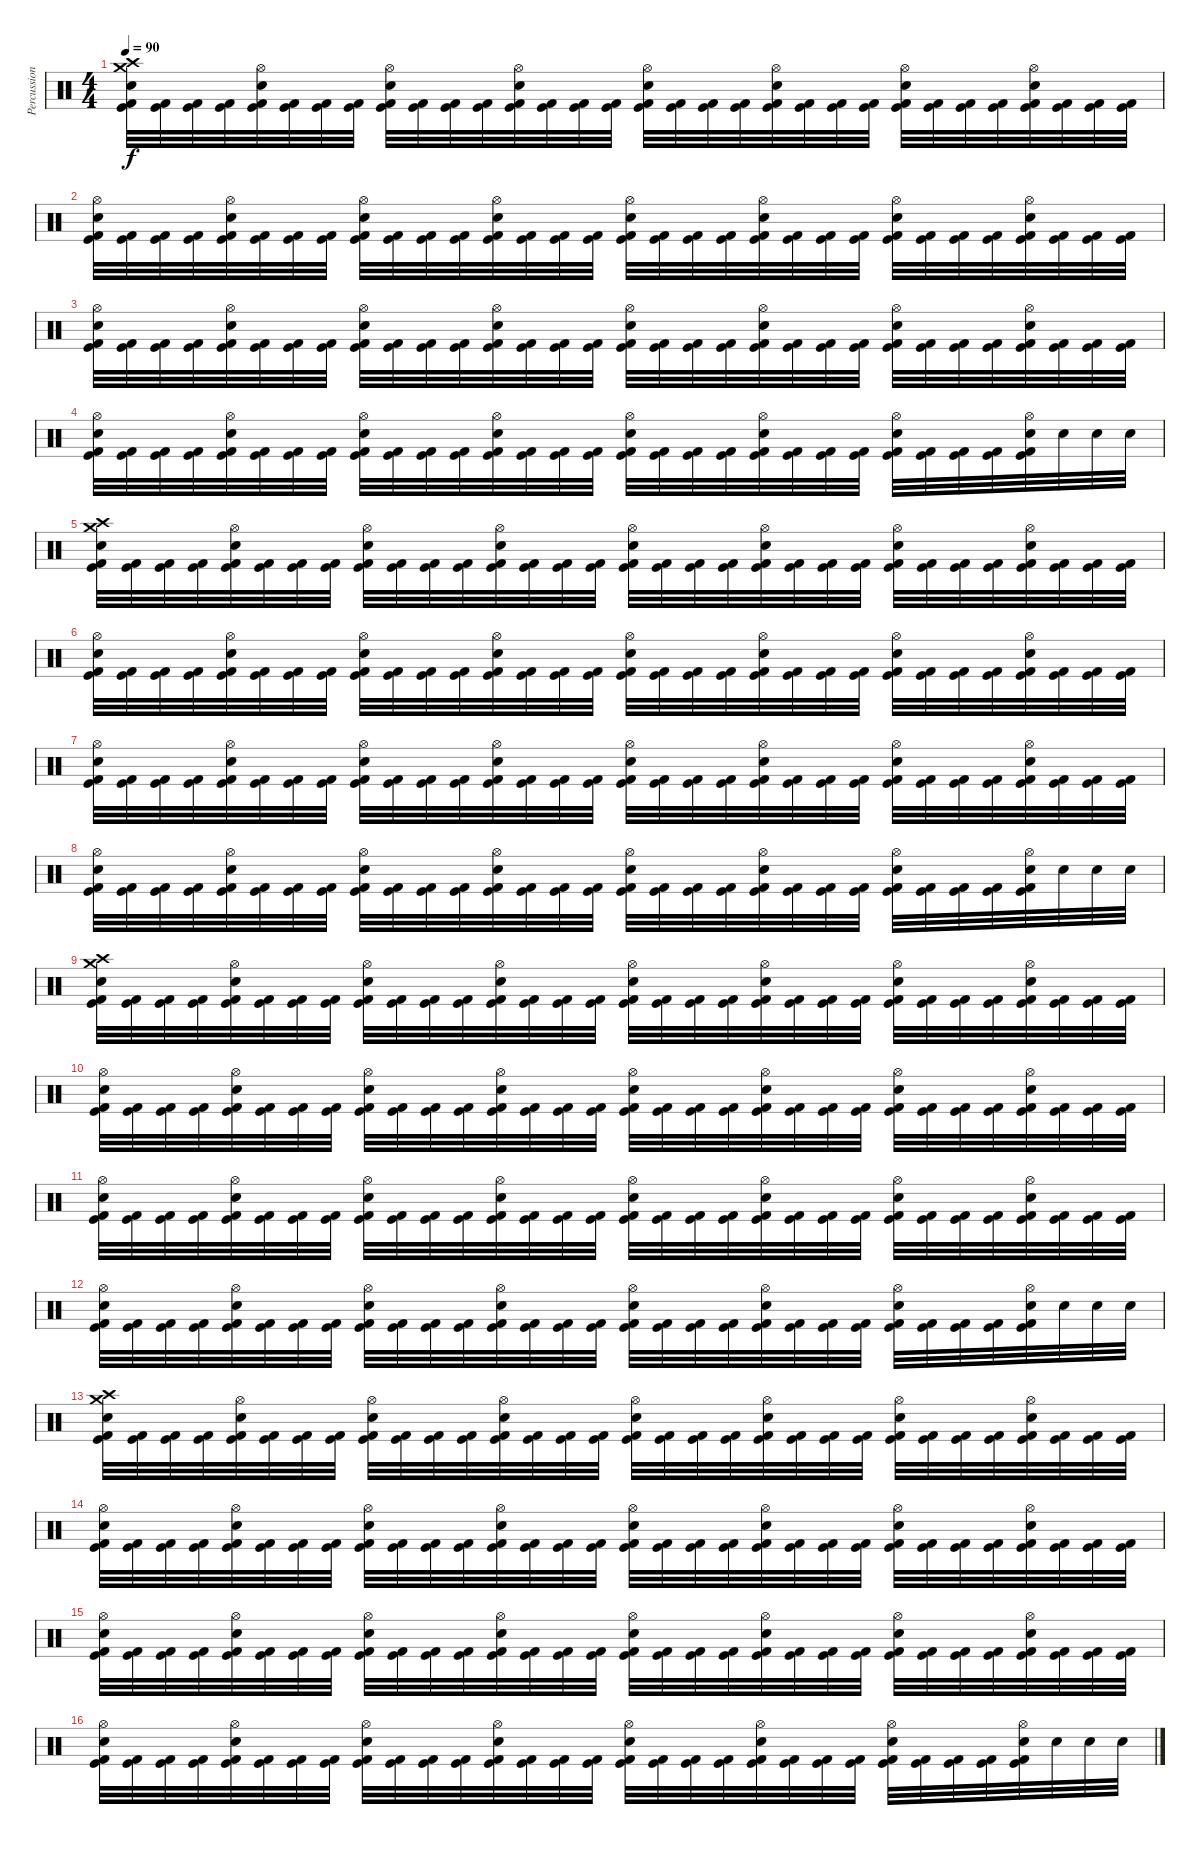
\track ("Percussion" "Percussion") {instrument percussion}
\staff {score}
\articulation defaults
\ts (4 4)
\tempo 90
\clef neutral
\ks c
("Crash medium (hit)" "Crash high (hit)" "Kick (hit) 2" "Electric Snare (hit)" "Kick (hit)").32{dy f} ("Kick (hit) 2" "Kick (hit)").32 ("Kick (hit) 2" "Kick (hit)").32 ("Kick (hit) 2" "Kick (hit)").32 ("Hi-Hat (open)" "Kick (hit) 2" "Electric Snare (hit)" "Kick (hit)").32 ("Kick (hit) 2" "Kick (hit)").32 ("Kick (hit) 2" "Kick (hit)").32 ("Kick (hit) 2" "Kick (hit)").32 ("Hi-Hat (open)" "Kick (hit) 2" "Electric Snare (hit)" "Kick (hit)").32 ("Kick (hit) 2" "Kick (hit)").32 ("Kick (hit) 2" "Kick (hit)").32 ("Kick (hit) 2" "Kick (hit)").32 ("Hi-Hat (open)" "Kick (hit) 2" "Electric Snare (hit)" "Kick (hit)").32 ("Kick (hit) 2" "Kick (hit)").32 ("Kick (hit) 2" "Kick (hit)").32 ("Kick (hit) 2" "Kick (hit)").32 ("Hi-Hat (open)" "Kick (hit) 2" "Electric Snare (hit)" "Kick (hit)").32 ("Kick (hit) 2" "Kick (hit)").32 ("Kick (hit) 2" "Kick (hit)").32 ("Kick (hit) 2" "Kick (hit)").32 ("Hi-Hat (open)" "Kick (hit) 2" "Electric Snare (hit)" "Kick (hit)").32 ("Kick (hit) 2" "Kick (hit)").32 ("Kick (hit) 2" "Kick (hit)").32 ("Kick (hit) 2" "Kick (hit)").32 ("Hi-Hat (open)" "Kick (hit) 2" "Electric Snare (hit)" "Kick (hit)").32 ("Kick (hit) 2" "Kick (hit)").32 ("Kick (hit) 2" "Kick (hit)").32 ("Kick (hit) 2" "Kick (hit)").32 ("Hi-Hat (open)" "Kick (hit) 2" "Electric Snare (hit)" "Kick (hit)").32 ("Kick (hit) 2" "Kick (hit)").32 ("Kick (hit) 2" "Kick (hit)").32 ("Kick (hit) 2" "Kick (hit)").32 |
("Kick (hit) 2" "Hi-Hat (open)" "Electric Snare (hit)" "Kick (hit)").32 ("Kick (hit) 2" "Kick (hit)").32 ("Kick (hit) 2" "Kick (hit)").32 ("Kick (hit) 2" "Kick (hit)").32 ("Kick (hit) 2" "Hi-Hat (open)" "Electric Snare (hit)" "Kick (hit)").32 ("Kick (hit) 2" "Kick (hit)").32 ("Kick (hit) 2" "Kick (hit)").32 ("Kick (hit) 2" "Kick (hit)").32 ("Kick (hit) 2" "Hi-Hat (open)" "Electric Snare (hit)" "Kick (hit)").32 ("Kick (hit) 2" "Kick (hit)").32 ("Kick (hit) 2" "Kick (hit)").32 ("Kick (hit) 2" "Kick (hit)").32 ("Kick (hit) 2" "Hi-Hat (open)" "Electric Snare (hit)" "Kick (hit)").32 ("Kick (hit) 2" "Kick (hit)").32 ("Kick (hit) 2" "Kick (hit)").32 ("Kick (hit) 2" "Kick (hit)").32 ("Kick (hit) 2" "Hi-Hat (open)" "Electric Snare (hit)" "Kick (hit)").32 ("Kick (hit) 2" "Kick (hit)").32 ("Kick (hit) 2" "Kick (hit)").32 ("Kick (hit) 2" "Kick (hit)").32 ("Kick (hit) 2" "Hi-Hat (open)" "Electric Snare (hit)" "Kick (hit)").32 ("Kick (hit) 2" "Kick (hit)").32 ("Kick (hit) 2" "Kick (hit)").32 ("Kick (hit) 2" "Kick (hit)").32 ("Kick (hit) 2" "Hi-Hat (open)" "Electric Snare (hit)" "Kick (hit)").32 ("Kick (hit) 2" "Kick (hit)").32 ("Kick (hit) 2" "Kick (hit)").32 ("Kick (hit) 2" "Kick (hit)").32 ("Kick (hit) 2" "Hi-Hat (open)" "Electric Snare (hit)" "Kick (hit)").32 ("Kick (hit) 2" "Kick (hit)").32 ("Kick (hit) 2" "Kick (hit)").32 ("Kick (hit) 2" "Kick (hit)").32 |
("Kick (hit) 2" "Hi-Hat (open)" "Electric Snare (hit)" "Kick (hit)").32 ("Kick (hit) 2" "Kick (hit)").32 ("Kick (hit) 2" "Kick (hit)").32 ("Kick (hit) 2" "Kick (hit)").32 ("Kick (hit) 2" "Hi-Hat (open)" "Electric Snare (hit)" "Kick (hit)").32 ("Kick (hit) 2" "Kick (hit)").32 ("Kick (hit) 2" "Kick (hit)").32 ("Kick (hit) 2" "Kick (hit)").32 ("Kick (hit) 2" "Hi-Hat (open)" "Electric Snare (hit)" "Kick (hit)").32 ("Kick (hit) 2" "Kick (hit)").32 ("Kick (hit) 2" "Kick (hit)").32 ("Kick (hit) 2" "Kick (hit)").32 ("Kick (hit) 2" "Hi-Hat (open)" "Electric Snare (hit)" "Kick (hit)").32 ("Kick (hit) 2" "Kick (hit)").32 ("Kick (hit) 2" "Kick (hit)").32 ("Kick (hit) 2" "Kick (hit)").32 ("Kick (hit) 2" "Hi-Hat (open)" "Electric Snare (hit)" "Kick (hit)").32 ("Kick (hit) 2" "Kick (hit)").32 ("Kick (hit) 2" "Kick (hit)").32 ("Kick (hit) 2" "Kick (hit)").32 ("Kick (hit) 2" "Hi-Hat (open)" "Electric Snare (hit)" "Kick (hit)").32 ("Kick (hit) 2" "Kick (hit)").32 ("Kick (hit) 2" "Kick (hit)").32 ("Kick (hit) 2" "Kick (hit)").32 ("Kick (hit) 2" "Hi-Hat (open)" "Electric Snare (hit)" "Kick (hit)").32 ("Kick (hit) 2" "Kick (hit)").32 ("Kick (hit) 2" "Kick (hit)").32 ("Kick (hit) 2" "Kick (hit)").32 ("Kick (hit) 2" "Hi-Hat (open)" "Electric Snare (hit)" "Kick (hit)").32 ("Kick (hit) 2" "Kick (hit)").32 ("Kick (hit) 2" "Kick (hit)").32 ("Kick (hit) 2" "Kick (hit)").32 |
("Kick (hit) 2" "Hi-Hat (open)" "Electric Snare (hit)" "Kick (hit)").32 ("Kick (hit) 2" "Kick (hit)").32 ("Kick (hit) 2" "Kick (hit)").32 ("Kick (hit) 2" "Kick (hit)").32 ("Kick (hit) 2" "Hi-Hat (open)" "Kick (hit)" "Electric Snare (hit)").32 ("Kick (hit) 2" "Kick (hit)").32 ("Kick (hit) 2" "Kick (hit)").32 ("Kick (hit) 2" "Kick (hit)").32 ("Kick (hit) 2" "Hi-Hat (open)" "Electric Snare (hit)" "Kick (hit)").32 ("Kick (hit) 2" "Kick (hit)").32 ("Kick (hit) 2" "Kick (hit)").32 ("Kick (hit) 2" "Kick (hit)").32 ("Kick (hit) 2" "Hi-Hat (open)" "Electric Snare (hit)" "Kick (hit)").32 ("Kick (hit) 2" "Kick (hit)").32 ("Kick (hit) 2" "Kick (hit)").32 ("Kick (hit) 2" "Kick (hit)").32 ("Kick (hit) 2" "Hi-Hat (open)" "Electric Snare (hit)" "Kick (hit)").32 ("Kick (hit) 2" "Kick (hit)").32 ("Kick (hit) 2" "Kick (hit)").32 ("Kick (hit) 2" "Kick (hit)").32 ("Kick (hit) 2" "Electric Snare (hit)" "Hi-Hat (open)" "Kick (hit)").32 ("Kick (hit) 2" "Kick (hit)").32 ("Kick (hit) 2" "Kick (hit)").32 ("Kick (hit) 2" "Kick (hit)").32 ("Kick (hit) 2" "Hi-Hat (open)" "Electric Snare (hit)" "Kick (hit)").32 ("Kick (hit) 2" "Kick (hit)").32 ("Kick (hit) 2" "Kick (hit)").32 ("Kick (hit) 2" "Kick (hit)").32 ("Kick (hit) 2" "Hi-Hat (open)" "Electric Snare (hit)" "Kick (hit)").32 "Electric Snare (hit)".32 "Electric Snare (hit)".32 "Electric Snare (hit)".32 |
("Crash medium (hit)" "Crash high (hit)" "Kick (hit) 2" "Electric Snare (hit)" "Kick (hit)").32 ("Kick (hit) 2" "Kick (hit)").32 ("Kick (hit) 2" "Kick (hit)").32 ("Kick (hit) 2" "Kick (hit)").32 ("Hi-Hat (open)" "Kick (hit) 2" "Electric Snare (hit)" "Kick (hit)").32 ("Kick (hit) 2" "Kick (hit)").32 ("Kick (hit) 2" "Kick (hit)").32 ("Kick (hit) 2" "Kick (hit)").32 ("Hi-Hat (open)" "Kick (hit) 2" "Electric Snare (hit)" "Kick (hit)").32 ("Kick (hit) 2" "Kick (hit)").32 ("Kick (hit) 2" "Kick (hit)").32 ("Kick (hit) 2" "Kick (hit)").32 ("Hi-Hat (open)" "Kick (hit) 2" "Electric Snare (hit)" "Kick (hit)").32 ("Kick (hit) 2" "Kick (hit)").32 ("Kick (hit) 2" "Kick (hit)").32 ("Kick (hit) 2" "Kick (hit)").32 ("Hi-Hat (open)" "Kick (hit) 2" "Electric Snare (hit)" "Kick (hit)").32 ("Kick (hit) 2" "Kick (hit)").32 ("Kick (hit) 2" "Kick (hit)").32 ("Kick (hit) 2" "Kick (hit)").32 ("Hi-Hat (open)" "Kick (hit) 2" "Electric Snare (hit)" "Kick (hit)").32 ("Kick (hit) 2" "Kick (hit)").32 ("Kick (hit) 2" "Kick (hit)").32 ("Kick (hit) 2" "Kick (hit)").32 ("Hi-Hat (open)" "Kick (hit) 2" "Electric Snare (hit)" "Kick (hit)").32 ("Kick (hit) 2" "Kick (hit)").32 ("Kick (hit) 2" "Kick (hit)").32 ("Kick (hit) 2" "Kick (hit)").32 ("Hi-Hat (open)" "Kick (hit) 2" "Electric Snare (hit)" "Kick (hit)").32 ("Kick (hit) 2" "Kick (hit)").32 ("Kick (hit) 2" "Kick (hit)").32 ("Kick (hit) 2" "Kick (hit)").32 |
("Kick (hit) 2" "Hi-Hat (open)" "Electric Snare (hit)" "Kick (hit)").32 ("Kick (hit) 2" "Kick (hit)").32 ("Kick (hit) 2" "Kick (hit)").32 ("Kick (hit) 2" "Kick (hit)").32 ("Kick (hit) 2" "Hi-Hat (open)" "Electric Snare (hit)" "Kick (hit)").32 ("Kick (hit) 2" "Kick (hit)").32 ("Kick (hit) 2" "Kick (hit)").32 ("Kick (hit) 2" "Kick (hit)").32 ("Kick (hit) 2" "Hi-Hat (open)" "Electric Snare (hit)" "Kick (hit)").32 ("Kick (hit) 2" "Kick (hit)").32 ("Kick (hit) 2" "Kick (hit)").32 ("Kick (hit) 2" "Kick (hit)").32 ("Kick (hit) 2" "Hi-Hat (open)" "Electric Snare (hit)" "Kick (hit)").32 ("Kick (hit) 2" "Kick (hit)").32 ("Kick (hit) 2" "Kick (hit)").32 ("Kick (hit) 2" "Kick (hit)").32 ("Kick (hit) 2" "Hi-Hat (open)" "Electric Snare (hit)" "Kick (hit)").32 ("Kick (hit) 2" "Kick (hit)").32 ("Kick (hit) 2" "Kick (hit)").32 ("Kick (hit) 2" "Kick (hit)").32 ("Kick (hit) 2" "Hi-Hat (open)" "Electric Snare (hit)" "Kick (hit)").32 ("Kick (hit) 2" "Kick (hit)").32 ("Kick (hit) 2" "Kick (hit)").32 ("Kick (hit) 2" "Kick (hit)").32 ("Kick (hit) 2" "Hi-Hat (open)" "Electric Snare (hit)" "Kick (hit)").32 ("Kick (hit) 2" "Kick (hit)").32 ("Kick (hit) 2" "Kick (hit)").32 ("Kick (hit) 2" "Kick (hit)").32 ("Kick (hit) 2" "Hi-Hat (open)" "Electric Snare (hit)" "Kick (hit)").32 ("Kick (hit) 2" "Kick (hit)").32 ("Kick (hit) 2" "Kick (hit)").32 ("Kick (hit) 2" "Kick (hit)").32 |
("Kick (hit) 2" "Hi-Hat (open)" "Electric Snare (hit)" "Kick (hit)").32 ("Kick (hit) 2" "Kick (hit)").32 ("Kick (hit) 2" "Kick (hit)").32 ("Kick (hit) 2" "Kick (hit)").32 ("Kick (hit) 2" "Hi-Hat (open)" "Electric Snare (hit)" "Kick (hit)").32 ("Kick (hit) 2" "Kick (hit)").32 ("Kick (hit) 2" "Kick (hit)").32 ("Kick (hit) 2" "Kick (hit)").32 ("Kick (hit) 2" "Hi-Hat (open)" "Electric Snare (hit)" "Kick (hit)").32 ("Kick (hit) 2" "Kick (hit)").32 ("Kick (hit) 2" "Kick (hit)").32 ("Kick (hit) 2" "Kick (hit)").32 ("Kick (hit) 2" "Hi-Hat (open)" "Electric Snare (hit)" "Kick (hit)").32 ("Kick (hit) 2" "Kick (hit)").32 ("Kick (hit) 2" "Kick (hit)").32 ("Kick (hit) 2" "Kick (hit)").32 ("Kick (hit) 2" "Hi-Hat (open)" "Electric Snare (hit)" "Kick (hit)").32 ("Kick (hit) 2" "Kick (hit)").32 ("Kick (hit) 2" "Kick (hit)").32 ("Kick (hit) 2" "Kick (hit)").32 ("Kick (hit) 2" "Hi-Hat (open)" "Electric Snare (hit)" "Kick (hit)").32 ("Kick (hit) 2" "Kick (hit)").32 ("Kick (hit) 2" "Kick (hit)").32 ("Kick (hit) 2" "Kick (hit)").32 ("Kick (hit) 2" "Hi-Hat (open)" "Electric Snare (hit)" "Kick (hit)").32 ("Kick (hit) 2" "Kick (hit)").32 ("Kick (hit) 2" "Kick (hit)").32 ("Kick (hit) 2" "Kick (hit)").32 ("Kick (hit) 2" "Hi-Hat (open)" "Electric Snare (hit)" "Kick (hit)").32 ("Kick (hit) 2" "Kick (hit)").32 ("Kick (hit) 2" "Kick (hit)").32 ("Kick (hit) 2" "Kick (hit)").32 |
("Kick (hit) 2" "Hi-Hat (open)" "Electric Snare (hit)" "Kick (hit)").32 ("Kick (hit) 2" "Kick (hit)").32 ("Kick (hit) 2" "Kick (hit)").32 ("Kick (hit) 2" "Kick (hit)").32 ("Kick (hit) 2" "Hi-Hat (open)" "Kick (hit)" "Electric Snare (hit)").32 ("Kick (hit) 2" "Kick (hit)").32 ("Kick (hit) 2" "Kick (hit)").32 ("Kick (hit) 2" "Kick (hit)").32 ("Kick (hit) 2" "Hi-Hat (open)" "Electric Snare (hit)" "Kick (hit)").32 ("Kick (hit) 2" "Kick (hit)").32 ("Kick (hit) 2" "Kick (hit)").32 ("Kick (hit) 2" "Kick (hit)").32 ("Kick (hit) 2" "Hi-Hat (open)" "Electric Snare (hit)" "Kick (hit)").32 ("Kick (hit) 2" "Kick (hit)").32 ("Kick (hit) 2" "Kick (hit)").32 ("Kick (hit) 2" "Kick (hit)").32 ("Kick (hit) 2" "Hi-Hat (open)" "Electric Snare (hit)" "Kick (hit)").32 ("Kick (hit) 2" "Kick (hit)").32 ("Kick (hit) 2" "Kick (hit)").32 ("Kick (hit) 2" "Kick (hit)").32 ("Kick (hit) 2" "Electric Snare (hit)" "Hi-Hat (open)" "Kick (hit)").32 ("Kick (hit) 2" "Kick (hit)").32 ("Kick (hit) 2" "Kick (hit)").32 ("Kick (hit) 2" "Kick (hit)").32 ("Kick (hit) 2" "Hi-Hat (open)" "Electric Snare (hit)" "Kick (hit)").32 ("Kick (hit) 2" "Kick (hit)").32 ("Kick (hit) 2" "Kick (hit)").32 ("Kick (hit) 2" "Kick (hit)").32 ("Kick (hit) 2" "Hi-Hat (open)" "Electric Snare (hit)" "Kick (hit)").32 "Electric Snare (hit)".32 "Electric Snare (hit)".32 "Electric Snare (hit)".32 |
("Crash medium (hit)" "Crash high (hit)" "Kick (hit) 2" "Electric Snare (hit)" "Kick (hit)").32 ("Kick (hit) 2" "Kick (hit)").32 ("Kick (hit) 2" "Kick (hit)").32 ("Kick (hit) 2" "Kick (hit)").32 ("Hi-Hat (open)" "Kick (hit) 2" "Electric Snare (hit)" "Kick (hit)").32 ("Kick (hit) 2" "Kick (hit)").32 ("Kick (hit) 2" "Kick (hit)").32 ("Kick (hit) 2" "Kick (hit)").32 ("Hi-Hat (open)" "Kick (hit) 2" "Electric Snare (hit)" "Kick (hit)").32 ("Kick (hit) 2" "Kick (hit)").32 ("Kick (hit) 2" "Kick (hit)").32 ("Kick (hit) 2" "Kick (hit)").32 ("Hi-Hat (open)" "Kick (hit) 2" "Electric Snare (hit)" "Kick (hit)").32 ("Kick (hit) 2" "Kick (hit)").32 ("Kick (hit) 2" "Kick (hit)").32 ("Kick (hit) 2" "Kick (hit)").32 ("Hi-Hat (open)" "Kick (hit) 2" "Electric Snare (hit)" "Kick (hit)").32 ("Kick (hit) 2" "Kick (hit)").32 ("Kick (hit) 2" "Kick (hit)").32 ("Kick (hit) 2" "Kick (hit)").32 ("Hi-Hat (open)" "Kick (hit) 2" "Electric Snare (hit)" "Kick (hit)").32 ("Kick (hit) 2" "Kick (hit)").32 ("Kick (hit) 2" "Kick (hit)").32 ("Kick (hit) 2" "Kick (hit)").32 ("Hi-Hat (open)" "Kick (hit) 2" "Electric Snare (hit)" "Kick (hit)").32 ("Kick (hit) 2" "Kick (hit)").32 ("Kick (hit) 2" "Kick (hit)").32 ("Kick (hit) 2" "Kick (hit)").32 ("Hi-Hat (open)" "Kick (hit) 2" "Electric Snare (hit)" "Kick (hit)").32 ("Kick (hit) 2" "Kick (hit)").32 ("Kick (hit) 2" "Kick (hit)").32 ("Kick (hit) 2" "Kick (hit)").32 |
("Kick (hit) 2" "Hi-Hat (open)" "Electric Snare (hit)" "Kick (hit)").32 ("Kick (hit) 2" "Kick (hit)").32 ("Kick (hit) 2" "Kick (hit)").32 ("Kick (hit) 2" "Kick (hit)").32 ("Kick (hit) 2" "Hi-Hat (open)" "Electric Snare (hit)" "Kick (hit)").32 ("Kick (hit) 2" "Kick (hit)").32 ("Kick (hit) 2" "Kick (hit)").32 ("Kick (hit) 2" "Kick (hit)").32 ("Kick (hit) 2" "Hi-Hat (open)" "Electric Snare (hit)" "Kick (hit)").32 ("Kick (hit) 2" "Kick (hit)").32 ("Kick (hit) 2" "Kick (hit)").32 ("Kick (hit) 2" "Kick (hit)").32 ("Kick (hit) 2" "Hi-Hat (open)" "Electric Snare (hit)" "Kick (hit)").32 ("Kick (hit) 2" "Kick (hit)").32 ("Kick (hit) 2" "Kick (hit)").32 ("Kick (hit) 2" "Kick (hit)").32 ("Kick (hit) 2" "Hi-Hat (open)" "Electric Snare (hit)" "Kick (hit)").32 ("Kick (hit) 2" "Kick (hit)").32 ("Kick (hit) 2" "Kick (hit)").32 ("Kick (hit) 2" "Kick (hit)").32 ("Kick (hit) 2" "Hi-Hat (open)" "Electric Snare (hit)" "Kick (hit)").32 ("Kick (hit) 2" "Kick (hit)").32 ("Kick (hit) 2" "Kick (hit)").32 ("Kick (hit) 2" "Kick (hit)").32 ("Kick (hit) 2" "Hi-Hat (open)" "Electric Snare (hit)" "Kick (hit)").32 ("Kick (hit) 2" "Kick (hit)").32 ("Kick (hit) 2" "Kick (hit)").32 ("Kick (hit) 2" "Kick (hit)").32 ("Kick (hit) 2" "Hi-Hat (open)" "Electric Snare (hit)" "Kick (hit)").32 ("Kick (hit) 2" "Kick (hit)").32 ("Kick (hit) 2" "Kick (hit)").32 ("Kick (hit) 2" "Kick (hit)").32 |
("Kick (hit) 2" "Hi-Hat (open)" "Electric Snare (hit)" "Kick (hit)").32 ("Kick (hit) 2" "Kick (hit)").32 ("Kick (hit) 2" "Kick (hit)").32 ("Kick (hit) 2" "Kick (hit)").32 ("Kick (hit) 2" "Hi-Hat (open)" "Electric Snare (hit)" "Kick (hit)").32 ("Kick (hit) 2" "Kick (hit)").32 ("Kick (hit) 2" "Kick (hit)").32 ("Kick (hit) 2" "Kick (hit)").32 ("Kick (hit) 2" "Hi-Hat (open)" "Electric Snare (hit)" "Kick (hit)").32 ("Kick (hit) 2" "Kick (hit)").32 ("Kick (hit) 2" "Kick (hit)").32 ("Kick (hit) 2" "Kick (hit)").32 ("Kick (hit) 2" "Hi-Hat (open)" "Electric Snare (hit)" "Kick (hit)").32 ("Kick (hit) 2" "Kick (hit)").32 ("Kick (hit) 2" "Kick (hit)").32 ("Kick (hit) 2" "Kick (hit)").32 ("Kick (hit) 2" "Hi-Hat (open)" "Electric Snare (hit)" "Kick (hit)").32 ("Kick (hit) 2" "Kick (hit)").32 ("Kick (hit) 2" "Kick (hit)").32 ("Kick (hit) 2" "Kick (hit)").32 ("Kick (hit) 2" "Hi-Hat (open)" "Electric Snare (hit)" "Kick (hit)").32 ("Kick (hit) 2" "Kick (hit)").32 ("Kick (hit) 2" "Kick (hit)").32 ("Kick (hit) 2" "Kick (hit)").32 ("Kick (hit) 2" "Hi-Hat (open)" "Electric Snare (hit)" "Kick (hit)").32 ("Kick (hit) 2" "Kick (hit)").32 ("Kick (hit) 2" "Kick (hit)").32 ("Kick (hit) 2" "Kick (hit)").32 ("Kick (hit) 2" "Hi-Hat (open)" "Electric Snare (hit)" "Kick (hit)").32 ("Kick (hit) 2" "Kick (hit)").32 ("Kick (hit) 2" "Kick (hit)").32 ("Kick (hit) 2" "Kick (hit)").32 |
("Kick (hit) 2" "Hi-Hat (open)" "Electric Snare (hit)" "Kick (hit)").32 ("Kick (hit) 2" "Kick (hit)").32 ("Kick (hit) 2" "Kick (hit)").32 ("Kick (hit) 2" "Kick (hit)").32 ("Kick (hit) 2" "Hi-Hat (open)" "Kick (hit)" "Electric Snare (hit)").32 ("Kick (hit) 2" "Kick (hit)").32 ("Kick (hit) 2" "Kick (hit)").32 ("Kick (hit) 2" "Kick (hit)").32 ("Kick (hit) 2" "Hi-Hat (open)" "Electric Snare (hit)" "Kick (hit)").32 ("Kick (hit) 2" "Kick (hit)").32 ("Kick (hit) 2" "Kick (hit)").32 ("Kick (hit) 2" "Kick (hit)").32 ("Kick (hit) 2" "Hi-Hat (open)" "Electric Snare (hit)" "Kick (hit)").32 ("Kick (hit) 2" "Kick (hit)").32 ("Kick (hit) 2" "Kick (hit)").32 ("Kick (hit) 2" "Kick (hit)").32 ("Kick (hit) 2" "Hi-Hat (open)" "Electric Snare (hit)" "Kick (hit)").32 ("Kick (hit) 2" "Kick (hit)").32 ("Kick (hit) 2" "Kick (hit)").32 ("Kick (hit) 2" "Kick (hit)").32 ("Kick (hit) 2" "Electric Snare (hit)" "Hi-Hat (open)" "Kick (hit)").32 ("Kick (hit) 2" "Kick (hit)").32 ("Kick (hit) 2" "Kick (hit)").32 ("Kick (hit) 2" "Kick (hit)").32 ("Kick (hit) 2" "Hi-Hat (open)" "Electric Snare (hit)" "Kick (hit)").32 ("Kick (hit) 2" "Kick (hit)").32 ("Kick (hit) 2" "Kick (hit)").32 ("Kick (hit) 2" "Kick (hit)").32 ("Kick (hit) 2" "Hi-Hat (open)" "Electric Snare (hit)" "Kick (hit)").32 "Electric Snare (hit)".32 "Electric Snare (hit)".32 "Electric Snare (hit)".32 |
("Crash medium (hit)" "Crash high (hit)" "Kick (hit) 2" "Electric Snare (hit)" "Kick (hit)").32{volume 7} ("Kick (hit) 2" "Kick (hit)").32 ("Kick (hit) 2" "Kick (hit)").32 ("Kick (hit) 2" "Kick (hit)").32 ("Hi-Hat (open)" "Kick (hit) 2" "Electric Snare (hit)" "Kick (hit)").32 ("Kick (hit) 2" "Kick (hit)").32 ("Kick (hit) 2" "Kick (hit)").32 ("Kick (hit) 2" "Kick (hit)").32 ("Hi-Hat (open)" "Kick (hit) 2" "Electric Snare (hit)" "Kick (hit)").32 ("Kick (hit) 2" "Kick (hit)").32 ("Kick (hit) 2" "Kick (hit)").32 ("Kick (hit) 2" "Kick (hit)").32 ("Hi-Hat (open)" "Kick (hit) 2" "Electric Snare (hit)" "Kick (hit)").32 ("Kick (hit) 2" "Kick (hit)").32 ("Kick (hit) 2" "Kick (hit)").32 ("Kick (hit) 2" "Kick (hit)").32 ("Hi-Hat (open)" "Kick (hit) 2" "Electric Snare (hit)" "Kick (hit)").32 ("Kick (hit) 2" "Kick (hit)").32 ("Kick (hit) 2" "Kick (hit)").32 ("Kick (hit) 2" "Kick (hit)").32 ("Hi-Hat (open)" "Kick (hit) 2" "Electric Snare (hit)" "Kick (hit)").32 ("Kick (hit) 2" "Kick (hit)").32 ("Kick (hit) 2" "Kick (hit)").32 ("Kick (hit) 2" "Kick (hit)").32 ("Hi-Hat (open)" "Kick (hit) 2" "Electric Snare (hit)" "Kick (hit)").32 ("Kick (hit) 2" "Kick (hit)").32 ("Kick (hit) 2" "Kick (hit)").32 ("Kick (hit) 2" "Kick (hit)").32 ("Hi-Hat (open)" "Kick (hit) 2" "Electric Snare (hit)" "Kick (hit)").32 ("Kick (hit) 2" "Kick (hit)").32 ("Kick (hit) 2" "Kick (hit)").32 ("Kick (hit) 2" "Kick (hit)").32 |
("Kick (hit) 2" "Hi-Hat (open)" "Electric Snare (hit)" "Kick (hit)").32 ("Kick (hit) 2" "Kick (hit)").32 ("Kick (hit) 2" "Kick (hit)").32 ("Kick (hit) 2" "Kick (hit)").32 ("Kick (hit) 2" "Hi-Hat (open)" "Electric Snare (hit)" "Kick (hit)").32 ("Kick (hit) 2" "Kick (hit)").32 ("Kick (hit) 2" "Kick (hit)").32 ("Kick (hit) 2" "Kick (hit)").32 ("Kick (hit) 2" "Hi-Hat (open)" "Electric Snare (hit)" "Kick (hit)").32 ("Kick (hit) 2" "Kick (hit)").32 ("Kick (hit) 2" "Kick (hit)").32 ("Kick (hit) 2" "Kick (hit)").32 ("Kick (hit) 2" "Hi-Hat (open)" "Electric Snare (hit)" "Kick (hit)").32 ("Kick (hit) 2" "Kick (hit)").32 ("Kick (hit) 2" "Kick (hit)").32 ("Kick (hit) 2" "Kick (hit)").32 ("Kick (hit) 2" "Hi-Hat (open)" "Electric Snare (hit)" "Kick (hit)").32 ("Kick (hit) 2" "Kick (hit)").32 ("Kick (hit) 2" "Kick (hit)").32 ("Kick (hit) 2" "Kick (hit)").32 ("Kick (hit) 2" "Hi-Hat (open)" "Electric Snare (hit)" "Kick (hit)").32 ("Kick (hit) 2" "Kick (hit)").32 ("Kick (hit) 2" "Kick (hit)").32 ("Kick (hit) 2" "Kick (hit)").32 ("Kick (hit) 2" "Hi-Hat (open)" "Electric Snare (hit)" "Kick (hit)").32 ("Kick (hit) 2" "Kick (hit)").32 ("Kick (hit) 2" "Kick (hit)").32 ("Kick (hit) 2" "Kick (hit)").32 ("Kick (hit) 2" "Hi-Hat (open)" "Electric Snare (hit)" "Kick (hit)").32 ("Kick (hit) 2" "Kick (hit)").32 ("Kick (hit) 2" "Kick (hit)").32 ("Kick (hit) 2" "Kick (hit)").32 |
("Kick (hit) 2" "Hi-Hat (open)" "Electric Snare (hit)" "Kick (hit)").32{volume 0} ("Kick (hit) 2" "Kick (hit)").32 ("Kick (hit) 2" "Kick (hit)").32 ("Kick (hit) 2" "Kick (hit)").32 ("Kick (hit) 2" "Hi-Hat (open)" "Electric Snare (hit)" "Kick (hit)").32 ("Kick (hit) 2" "Kick (hit)").32 ("Kick (hit) 2" "Kick (hit)").32 ("Kick (hit) 2" "Kick (hit)").32 ("Kick (hit) 2" "Hi-Hat (open)" "Electric Snare (hit)" "Kick (hit)").32 ("Kick (hit) 2" "Kick (hit)").32 ("Kick (hit) 2" "Kick (hit)").32 ("Kick (hit) 2" "Kick (hit)").32 ("Kick (hit) 2" "Hi-Hat (open)" "Electric Snare (hit)" "Kick (hit)").32 ("Kick (hit) 2" "Kick (hit)").32 ("Kick (hit) 2" "Kick (hit)").32 ("Kick (hit) 2" "Kick (hit)").32 ("Kick (hit) 2" "Hi-Hat (open)" "Electric Snare (hit)" "Kick (hit)").32 ("Kick (hit) 2" "Kick (hit)").32 ("Kick (hit) 2" "Kick (hit)").32 ("Kick (hit) 2" "Kick (hit)").32 ("Kick (hit) 2" "Hi-Hat (open)" "Electric Snare (hit)" "Kick (hit)").32 ("Kick (hit) 2" "Kick (hit)").32 ("Kick (hit) 2" "Kick (hit)").32 ("Kick (hit) 2" "Kick (hit)").32 ("Kick (hit) 2" "Hi-Hat (open)" "Electric Snare (hit)" "Kick (hit)").32 ("Kick (hit) 2" "Kick (hit)").32 ("Kick (hit) 2" "Kick (hit)").32 ("Kick (hit) 2" "Kick (hit)").32 ("Kick (hit) 2" "Hi-Hat (open)" "Electric Snare (hit)" "Kick (hit)").32 ("Kick (hit) 2" "Kick (hit)").32 ("Kick (hit) 2" "Kick (hit)").32 ("Kick (hit) 2" "Kick (hit)").32 |
("Kick (hit) 2" "Hi-Hat (open)" "Electric Snare (hit)" "Kick (hit)").32 ("Kick (hit) 2" "Kick (hit)").32 ("Kick (hit) 2" "Kick (hit)").32 ("Kick (hit) 2" "Kick (hit)").32 ("Kick (hit) 2" "Hi-Hat (open)" "Kick (hit)" "Electric Snare (hit)").32 ("Kick (hit) 2" "Kick (hit)").32 ("Kick (hit) 2" "Kick (hit)").32 ("Kick (hit) 2" "Kick (hit)").32 ("Kick (hit) 2" "Hi-Hat (open)" "Electric Snare (hit)" "Kick (hit)").32 ("Kick (hit) 2" "Kick (hit)").32 ("Kick (hit) 2" "Kick (hit)").32 ("Kick (hit) 2" "Kick (hit)").32 ("Kick (hit) 2" "Hi-Hat (open)" "Electric Snare (hit)" "Kick (hit)").32 ("Kick (hit) 2" "Kick (hit)").32 ("Kick (hit) 2" "Kick (hit)").32 ("Kick (hit) 2" "Kick (hit)").32 ("Kick (hit) 2" "Hi-Hat (open)" "Electric Snare (hit)" "Kick (hit)").32 ("Kick (hit) 2" "Kick (hit)").32 ("Kick (hit) 2" "Kick (hit)").32 ("Kick (hit) 2" "Kick (hit)").32 ("Kick (hit) 2" "Electric Snare (hit)" "Hi-Hat (open)" "Kick (hit)").32 ("Kick (hit) 2" "Kick (hit)").32 ("Kick (hit) 2" "Kick (hit)").32 ("Kick (hit) 2" "Kick (hit)").32 ("Kick (hit) 2" "Hi-Hat (open)" "Electric Snare (hit)" "Kick (hit)").32 ("Kick (hit) 2" "Kick (hit)").32 ("Kick (hit) 2" "Kick (hit)").32 ("Kick (hit) 2" "Kick (hit)").32 ("Kick (hit) 2" "Hi-Hat (open)" "Electric Snare (hit)" "Kick (hit)").32 "Electric Snare (hit)".32 "Electric Snare (hit)".32 "Electric Snare (hit)".32
